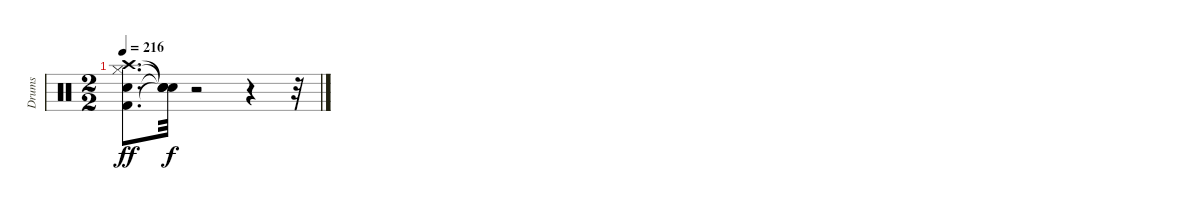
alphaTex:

\track ("Drums" "Drums") {instrument percussion}
\staff {score}
\articulation defaults
\ts (2 2)
\tempo 216
\clef neutral
\ks c
("Kick (hit) 2" "Snare (hit) 2" "Hi-Hat (closed)" "Crash high (hit)").8{d dy ff} ("Snare (hit)"{t} "Snare (hit)"{t} "Snare (hit)"{t} "Snare (hit)"{t}).32{dy f} r.2 r.4 r.32
